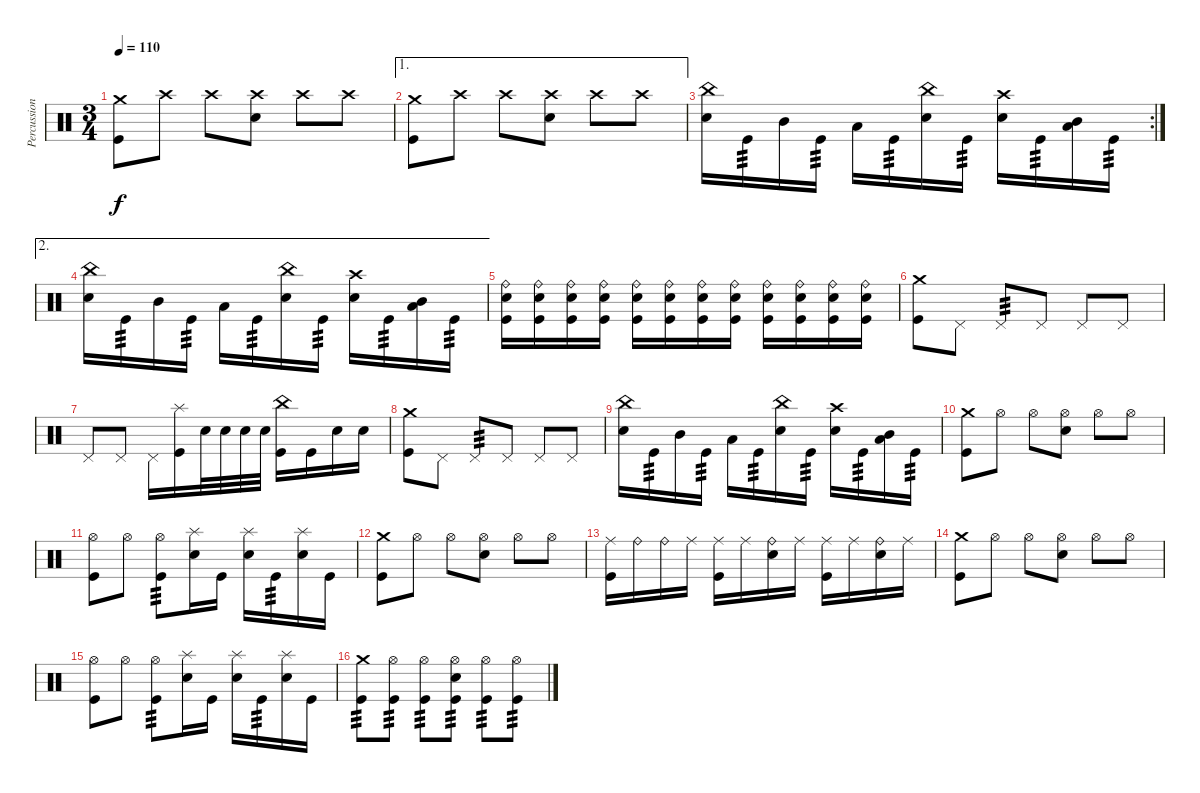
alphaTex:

\track ("Percussion" "Percussion") {instrument percussion}
\staff {score}
\articulation defaults
\ts (3 4)
\tempo 110
\clef neutral
\ks c
("Crash medium (hit)" "Kick (hit)").8{dy f} "Crash high (hit)".8 "Crash high (hit)".8 ("Crash high (hit)" "Electric Snare (hit)").8 "Crash high (hit)".8 "Crash high (hit)".8 |
\ae 1
("Crash medium (hit)" "Kick (hit)").8 "Crash high (hit)".8 "Crash high (hit)".8 ("Crash high (hit)" "Electric Snare (hit)").8 "Crash high (hit)".8 "Crash high (hit)".8 |
\rc 2
("China (hit)" "Electric Snare (hit)").16 "Kick (hit)".16{tp 3} "Mid Tom (hit)".16 "Kick (hit)".16{tp 3} "Low Tom (hit)".16 "Kick (hit)".16{tp 3} ("China (hit)" "Electric Snare (hit)").16 "Kick (hit)".16{tp 3} ("Crash high (hit)" "Electric Snare (hit)").16 "Kick (hit)".16{tp 3} ("Low Tom (hit)" "Mid Tom (hit)").16 "Kick (hit)".16{tp 3} |
\ae 2
("China (hit)" "Electric Snare (hit)").16 "Kick (hit)".16{tp 3} "Mid Tom (hit)".16 "Kick (hit)".16{tp 3} "Low Tom (hit)".16 "Kick (hit)".16{tp 3} ("China (hit)" "Electric Snare (hit)").16 "Kick (hit)".16{tp 3} ("Crash high (hit)" "Electric Snare (hit)").16 "Kick (hit)".16{tp 3} ("Low Tom (hit)" "Mid Tom (hit)").16 "Kick (hit)".16{tp 3} |
("Ride (bell)" "Electric Snare (hit)" "Kick (hit)").16 ("Ride (bell)" "Electric Snare (hit)" "Kick (hit)").16 ("Ride (bell)" "Electric Snare (hit)" "Kick (hit)").16 ("Ride (bell)" "Electric Snare (hit)" "Kick (hit)").16 ("Ride (bell)" "Electric Snare (hit)" "Kick (hit)").16 ("Ride (bell)" "Electric Snare (hit)" "Kick (hit)").16 ("Ride (bell)" "Electric Snare (hit)" "Kick (hit)").16 ("Ride (bell)" "Electric Snare (hit)" "Kick (hit)").16 ("Ride (bell)" "Electric Snare (hit)" "Kick (hit)").16 ("Ride (bell)" "Electric Snare (hit)" "Kick (hit)").16 ("Ride (bell)" "Electric Snare (hit)" "Kick (hit)").16 ("Ride (bell)" "Electric Snare (hit)" "Kick (hit)").16 |
("Crash medium (hit)" "Kick (hit)").8 "Pedal Hi-Hat (hit)".8 "Pedal Hi-Hat (hit)".8{tp 3} "Pedal Hi-Hat (hit)".8 "Pedal Hi-Hat (hit)".8 "Pedal Hi-Hat (hit)".8 |
"Pedal Hi-Hat (hit)".8 "Pedal Hi-Hat (hit)".8 "Pedal Hi-Hat (hit)".16 ("Splash (hit)" "Kick (hit)").16 "Electric Snare (hit)".32 "Electric Snare (hit)".32 "Electric Snare (hit)".32 "Electric Snare (hit)".32 ("China (hit)" "Kick (hit)").16 "Kick (hit)".16 "Electric Snare (hit)".16 "Electric Snare (hit)".16 |
("Crash medium (hit)" "Kick (hit)").8 "Pedal Hi-Hat (hit)".8 "Pedal Hi-Hat (hit)".8{tp 3} "Pedal Hi-Hat (hit)".8 "Pedal Hi-Hat (hit)".8 "Pedal Hi-Hat (hit)".8 |
("China (hit)" "Electric Snare (hit)").16 "Kick (hit)".16{tp 3} "Mid Tom (hit)".16 "Kick (hit)".16{tp 3} "Low Tom (hit)".16 "Kick (hit)".16{tp 3} ("China (hit)" "Electric Snare (hit)").16 "Kick (hit)".16{tp 3} ("Crash high (hit)" "Electric Snare (hit)").16 "Kick (hit)".16{tp 3} ("Low Tom (hit)" "Mid Tom (hit)").16 "Kick (hit)".16{tp 3} |
("Crash medium (hit)" "Kick (hit)").8 "Hi-Hat (open)".8 "Hi-Hat (open)".8 ("Hi-Hat (open)" "Electric Snare (hit)").8 "Hi-Hat (open)".8 "Hi-Hat (open)".8 |
("Hi-Hat (open)" "Kick (hit)").8 "Hi-Hat (open)".8 ("Hi-Hat (open)" "Kick (hit)").8{tp 3} ("Splash (hit)" "Electric Snare (hit)").16 "Kick (hit)".16 ("Splash (hit)" "Electric Snare (hit)").16 "Kick (hit)".16{tp 3} ("Splash (hit)" "Electric Snare (hit)").16 "Kick (hit)".16 |
("Crash medium (hit)" "Kick (hit)").8 "Hi-Hat (open)".8 "Hi-Hat (open)".8 ("Hi-Hat (open)" "Electric Snare (hit)").8 "Hi-Hat (open)".8 "Hi-Hat (open)".8 |
("Ride (middle)" "Kick (hit)").16 "Ride (bell)".16 "Ride (bell)".16 "Ride (middle)".16 ("Ride (middle)" "Kick (hit)").16 "Ride (middle)".16 ("Ride (bell)" "Electric Snare (hit)").16 "Ride (middle)".16 ("Ride (middle)" "Kick (hit)").16 "Ride (middle)".16 ("Ride (bell)" "Electric Snare (hit)").16 "Ride (middle)".16 |
("Crash medium (hit)" "Kick (hit)").8 "Hi-Hat (open)".8 "Hi-Hat (open)".8 ("Hi-Hat (open)" "Electric Snare (hit)").8 "Hi-Hat (open)".8 "Hi-Hat (open)".8 |
("Hi-Hat (open)" "Kick (hit)").8 "Hi-Hat (open)".8 ("Hi-Hat (open)" "Kick (hit)").8{tp 3} ("Splash (hit)" "Electric Snare (hit)").16 "Kick (hit)".16 ("Splash (hit)" "Electric Snare (hit)").16 "Kick (hit)".16{tp 3} ("Splash (hit)" "Electric Snare (hit)").16 "Kick (hit)".16 |
("Crash medium (hit)" "Kick (hit)").8{tp 3} ("Hi-Hat (open)" "Kick (hit)").8{tp 3} ("Hi-Hat (open)" "Kick (hit)").8{tp 3} ("Electric Snare (hit)" "Hi-Hat (open)" "Kick (hit)").8{tp 3} ("Hi-Hat (open)" "Kick (hit)").8{tp 3} ("Hi-Hat (open)" "Kick (hit)").8{tp 3}
